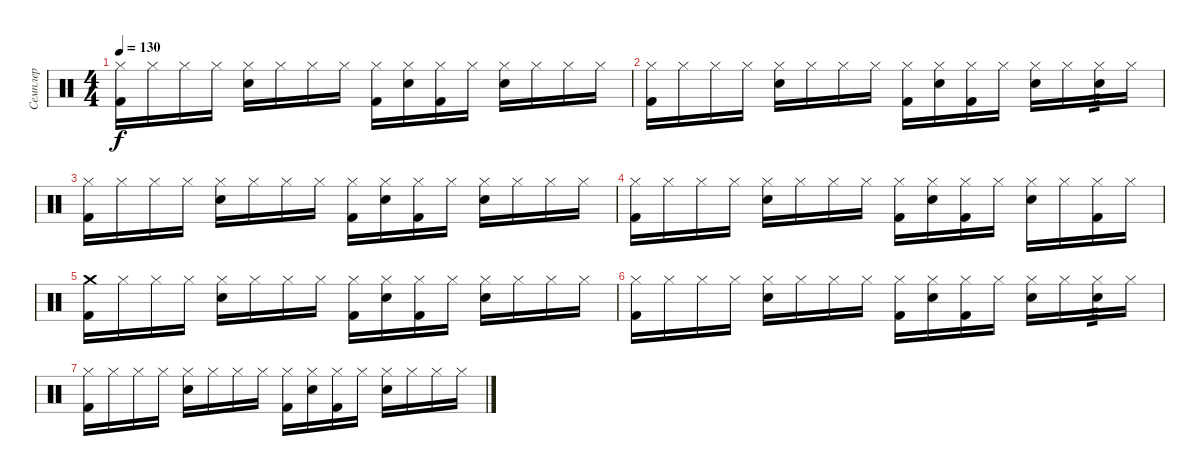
\track ("Семплер" "Семплер") {instrument percussion}
\staff {score}
\articulation defaults
\ts (4 4)
\tempo 130
\clef neutral
\ks c
("Hi-Hat (closed)" "Kick (hit) 2").16{dy f} "Hi-Hat (closed)".16 "Hi-Hat (closed)".16 "Hi-Hat (closed)".16 ("Hi-Hat (closed)" "Snare (hit) 2").16 "Hi-Hat (closed)".16 "Hi-Hat (closed)".16 "Hi-Hat (closed)".16 ("Hi-Hat (closed)" "Kick (hit) 2").16 ("Hi-Hat (closed)" "Snare (hit) 2").16 ("Hi-Hat (closed)" "Kick (hit) 2").16 "Hi-Hat (closed)".16 ("Hi-Hat (closed)" "Snare (hit) 2").16 "Hi-Hat (closed)".16 "Hi-Hat (closed)".16 "Hi-Hat (closed)".16 |
("Hi-Hat (closed)" "Kick (hit) 2").16 "Hi-Hat (closed)".16 "Hi-Hat (closed)".16 "Hi-Hat (closed)".16 ("Hi-Hat (closed)" "Snare (hit) 2").16 "Hi-Hat (closed)".16 "Hi-Hat (closed)".16 "Hi-Hat (closed)".16 ("Hi-Hat (closed)" "Kick (hit) 2").16 ("Hi-Hat (closed)" "Snare (hit) 2").16 ("Hi-Hat (closed)" "Kick (hit) 2").16 "Hi-Hat (closed)".16 ("Hi-Hat (closed)" "Snare (hit) 2").16 "Hi-Hat (closed)".16 ("Hi-Hat (closed)" "Snare (hit) 2").16{tp 3} "Hi-Hat (closed)".16 |
("Hi-Hat (closed)" "Kick (hit) 2").16 "Hi-Hat (closed)".16 "Hi-Hat (closed)".16 "Hi-Hat (closed)".16 ("Hi-Hat (closed)" "Snare (hit) 2").16 "Hi-Hat (closed)".16 "Hi-Hat (closed)".16 "Hi-Hat (closed)".16 ("Hi-Hat (closed)" "Kick (hit) 2").16 ("Hi-Hat (closed)" "Snare (hit) 2").16 ("Hi-Hat (closed)" "Kick (hit) 2").16 "Hi-Hat (closed)".16 ("Hi-Hat (closed)" "Snare (hit) 2").16 "Hi-Hat (closed)".16 "Hi-Hat (closed)".16 "Hi-Hat (closed)".16 |
("Hi-Hat (closed)" "Kick (hit) 2").16 "Hi-Hat (closed)".16 "Hi-Hat (closed)".16 "Hi-Hat (closed)".16 ("Hi-Hat (closed)" "Snare (hit) 2").16 "Hi-Hat (closed)".16 "Hi-Hat (closed)".16 "Hi-Hat (closed)".16 ("Hi-Hat (closed)" "Kick (hit) 2").16 ("Hi-Hat (closed)" "Snare (hit) 2").16 ("Hi-Hat (closed)" "Kick (hit) 2").16 "Hi-Hat (closed)".16 ("Hi-Hat (closed)" "Snare (hit) 2").16 "Hi-Hat (closed)".16 ("Hi-Hat (closed)" "Kick (hit) 2").16 "Hi-Hat (closed)".16 |
("Crash medium (hit)" "Kick (hit) 2").16 "Hi-Hat (closed)".16 "Hi-Hat (closed)".16 "Hi-Hat (closed)".16 ("Hi-Hat (closed)" "Snare (hit) 2").16 "Hi-Hat (closed)".16 "Hi-Hat (closed)".16 "Hi-Hat (closed)".16 ("Hi-Hat (closed)" "Kick (hit) 2").16 ("Hi-Hat (closed)" "Snare (hit) 2").16 ("Hi-Hat (closed)" "Kick (hit) 2").16 "Hi-Hat (closed)".16 ("Hi-Hat (closed)" "Snare (hit) 2").16 "Hi-Hat (closed)".16 "Hi-Hat (closed)".16 "Hi-Hat (closed)".16 |
("Hi-Hat (closed)" "Kick (hit) 2").16 "Hi-Hat (closed)".16 "Hi-Hat (closed)".16 "Hi-Hat (closed)".16 ("Hi-Hat (closed)" "Snare (hit) 2").16 "Hi-Hat (closed)".16 "Hi-Hat (closed)".16 "Hi-Hat (closed)".16 ("Hi-Hat (closed)" "Kick (hit) 2").16 ("Hi-Hat (closed)" "Snare (hit) 2").16 ("Hi-Hat (closed)" "Kick (hit) 2").16 "Hi-Hat (closed)".16 ("Hi-Hat (closed)" "Snare (hit) 2").16 "Hi-Hat (closed)".16 ("Hi-Hat (closed)" "Snare (hit) 2").16{tp 3} "Hi-Hat (closed)".16 |
("Hi-Hat (closed)" "Kick (hit) 2").16 "Hi-Hat (closed)".16 "Hi-Hat (closed)".16 "Hi-Hat (closed)".16 ("Hi-Hat (closed)" "Snare (hit) 2").16 "Hi-Hat (closed)".16 "Hi-Hat (closed)".16 "Hi-Hat (closed)".16 ("Hi-Hat (closed)" "Kick (hit) 2").16 ("Hi-Hat (closed)" "Snare (hit) 2").16 ("Hi-Hat (closed)" "Kick (hit) 2").16 "Hi-Hat (closed)".16 ("Hi-Hat (closed)" "Snare (hit) 2").16 "Hi-Hat (closed)".16 "Hi-Hat (closed)".16 "Hi-Hat (closed)".16
